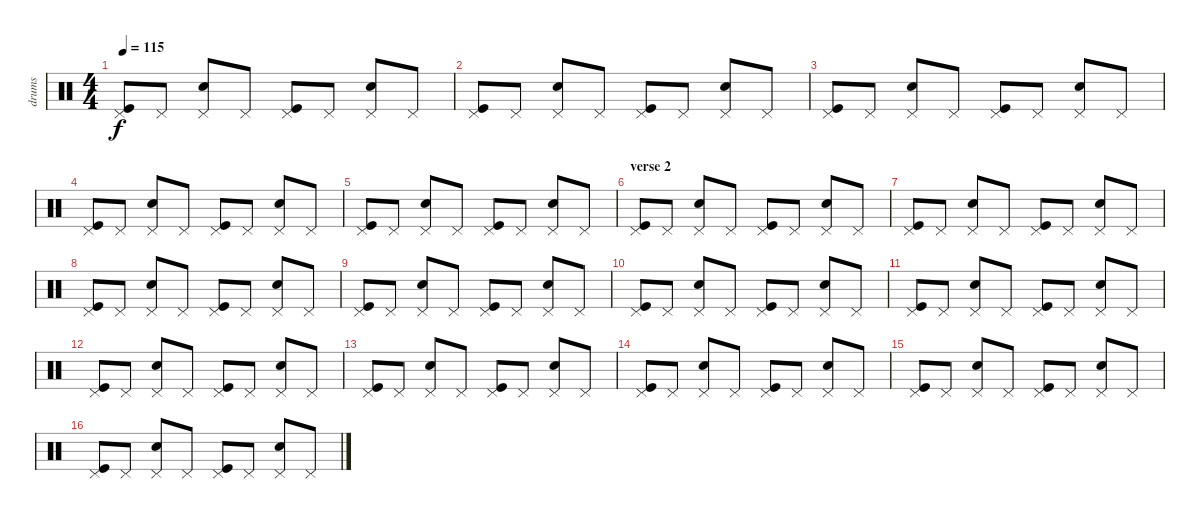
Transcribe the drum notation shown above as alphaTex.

\track ("drums" "drums") {instrument percussion}
\staff {score}
\articulation defaults
\ts (4 4)
\tempo 115
\clef neutral
\ks c
("Pedal Hi-Hat (hit)" "Kick (hit)").8{dy f} "Pedal Hi-Hat (hit)".8 ("Pedal Hi-Hat (hit)" "Electric Snare (hit)").8 "Pedal Hi-Hat (hit)".8 ("Pedal Hi-Hat (hit)" "Kick (hit)").8 "Pedal Hi-Hat (hit)".8 ("Pedal Hi-Hat (hit)" "Electric Snare (hit)").8 "Pedal Hi-Hat (hit)".8 |
("Pedal Hi-Hat (hit)" "Kick (hit)").8 "Pedal Hi-Hat (hit)".8 ("Pedal Hi-Hat (hit)" "Electric Snare (hit)").8 "Pedal Hi-Hat (hit)".8 ("Pedal Hi-Hat (hit)" "Kick (hit)").8 "Pedal Hi-Hat (hit)".8 ("Pedal Hi-Hat (hit)" "Electric Snare (hit)").8 "Pedal Hi-Hat (hit)".8 |
("Pedal Hi-Hat (hit)" "Kick (hit)").8 "Pedal Hi-Hat (hit)".8 ("Pedal Hi-Hat (hit)" "Electric Snare (hit)").8 "Pedal Hi-Hat (hit)".8 ("Pedal Hi-Hat (hit)" "Kick (hit)").8 "Pedal Hi-Hat (hit)".8 ("Pedal Hi-Hat (hit)" "Electric Snare (hit)").8 "Pedal Hi-Hat (hit)".8 |
("Pedal Hi-Hat (hit)" "Kick (hit)").8 "Pedal Hi-Hat (hit)".8 ("Pedal Hi-Hat (hit)" "Electric Snare (hit)").8 "Pedal Hi-Hat (hit)".8 ("Pedal Hi-Hat (hit)" "Kick (hit)").8 "Pedal Hi-Hat (hit)".8 ("Pedal Hi-Hat (hit)" "Electric Snare (hit)").8 "Pedal Hi-Hat (hit)".8 |
("Pedal Hi-Hat (hit)" "Kick (hit)").8 "Pedal Hi-Hat (hit)".8 ("Pedal Hi-Hat (hit)" "Electric Snare (hit)").8 "Pedal Hi-Hat (hit)".8 ("Pedal Hi-Hat (hit)" "Kick (hit)").8 "Pedal Hi-Hat (hit)".8 ("Pedal Hi-Hat (hit)" "Electric Snare (hit)").8 "Pedal Hi-Hat (hit)".8 |
\section ("" "verse 2")
("Pedal Hi-Hat (hit)" "Kick (hit)").8 "Pedal Hi-Hat (hit)".8 ("Pedal Hi-Hat (hit)" "Electric Snare (hit)").8 "Pedal Hi-Hat (hit)".8 ("Pedal Hi-Hat (hit)" "Kick (hit)").8 "Pedal Hi-Hat (hit)".8 ("Pedal Hi-Hat (hit)" "Electric Snare (hit)").8 "Pedal Hi-Hat (hit)".8 |
("Pedal Hi-Hat (hit)" "Kick (hit)").8 "Pedal Hi-Hat (hit)".8 ("Pedal Hi-Hat (hit)" "Electric Snare (hit)").8 "Pedal Hi-Hat (hit)".8 ("Pedal Hi-Hat (hit)" "Kick (hit)").8 "Pedal Hi-Hat (hit)".8 ("Pedal Hi-Hat (hit)" "Electric Snare (hit)").8 "Pedal Hi-Hat (hit)".8 |
("Pedal Hi-Hat (hit)" "Kick (hit)").8 "Pedal Hi-Hat (hit)".8 ("Pedal Hi-Hat (hit)" "Electric Snare (hit)").8 "Pedal Hi-Hat (hit)".8 ("Pedal Hi-Hat (hit)" "Kick (hit)").8 "Pedal Hi-Hat (hit)".8 ("Pedal Hi-Hat (hit)" "Electric Snare (hit)").8 "Pedal Hi-Hat (hit)".8 |
("Pedal Hi-Hat (hit)" "Kick (hit)").8 "Pedal Hi-Hat (hit)".8 ("Pedal Hi-Hat (hit)" "Electric Snare (hit)").8 "Pedal Hi-Hat (hit)".8 ("Pedal Hi-Hat (hit)" "Kick (hit)").8 "Pedal Hi-Hat (hit)".8 ("Pedal Hi-Hat (hit)" "Electric Snare (hit)").8 "Pedal Hi-Hat (hit)".8 |
("Pedal Hi-Hat (hit)" "Kick (hit)").8 "Pedal Hi-Hat (hit)".8 ("Pedal Hi-Hat (hit)" "Electric Snare (hit)").8 "Pedal Hi-Hat (hit)".8 ("Pedal Hi-Hat (hit)" "Kick (hit)").8 "Pedal Hi-Hat (hit)".8 ("Pedal Hi-Hat (hit)" "Electric Snare (hit)").8 "Pedal Hi-Hat (hit)".8 |
("Pedal Hi-Hat (hit)" "Kick (hit)").8 "Pedal Hi-Hat (hit)".8 ("Pedal Hi-Hat (hit)" "Electric Snare (hit)").8 "Pedal Hi-Hat (hit)".8 ("Pedal Hi-Hat (hit)" "Kick (hit)").8 "Pedal Hi-Hat (hit)".8 ("Pedal Hi-Hat (hit)" "Electric Snare (hit)").8 "Pedal Hi-Hat (hit)".8 |
("Pedal Hi-Hat (hit)" "Kick (hit)").8 "Pedal Hi-Hat (hit)".8 ("Pedal Hi-Hat (hit)" "Electric Snare (hit)").8 "Pedal Hi-Hat (hit)".8 ("Pedal Hi-Hat (hit)" "Kick (hit)").8 "Pedal Hi-Hat (hit)".8 ("Pedal Hi-Hat (hit)" "Electric Snare (hit)").8 "Pedal Hi-Hat (hit)".8 |
("Pedal Hi-Hat (hit)" "Kick (hit)").8 "Pedal Hi-Hat (hit)".8 ("Pedal Hi-Hat (hit)" "Electric Snare (hit)").8 "Pedal Hi-Hat (hit)".8 ("Pedal Hi-Hat (hit)" "Kick (hit)").8 "Pedal Hi-Hat (hit)".8 ("Pedal Hi-Hat (hit)" "Electric Snare (hit)").8 "Pedal Hi-Hat (hit)".8 |
("Pedal Hi-Hat (hit)" "Kick (hit)").8 "Pedal Hi-Hat (hit)".8 ("Pedal Hi-Hat (hit)" "Electric Snare (hit)").8 "Pedal Hi-Hat (hit)".8 ("Pedal Hi-Hat (hit)" "Kick (hit)").8 "Pedal Hi-Hat (hit)".8 ("Pedal Hi-Hat (hit)" "Electric Snare (hit)").8 "Pedal Hi-Hat (hit)".8 |
("Pedal Hi-Hat (hit)" "Kick (hit)").8 "Pedal Hi-Hat (hit)".8 ("Pedal Hi-Hat (hit)" "Electric Snare (hit)").8 "Pedal Hi-Hat (hit)".8 ("Pedal Hi-Hat (hit)" "Kick (hit)").8 "Pedal Hi-Hat (hit)".8 ("Pedal Hi-Hat (hit)" "Electric Snare (hit)").8 "Pedal Hi-Hat (hit)".8 |
("Pedal Hi-Hat (hit)" "Kick (hit)").8 "Pedal Hi-Hat (hit)".8 ("Pedal Hi-Hat (hit)" "Electric Snare (hit)").8 "Pedal Hi-Hat (hit)".8 ("Pedal Hi-Hat (hit)" "Kick (hit)").8 "Pedal Hi-Hat (hit)".8 ("Pedal Hi-Hat (hit)" "Electric Snare (hit)").8 "Pedal Hi-Hat (hit)".8
